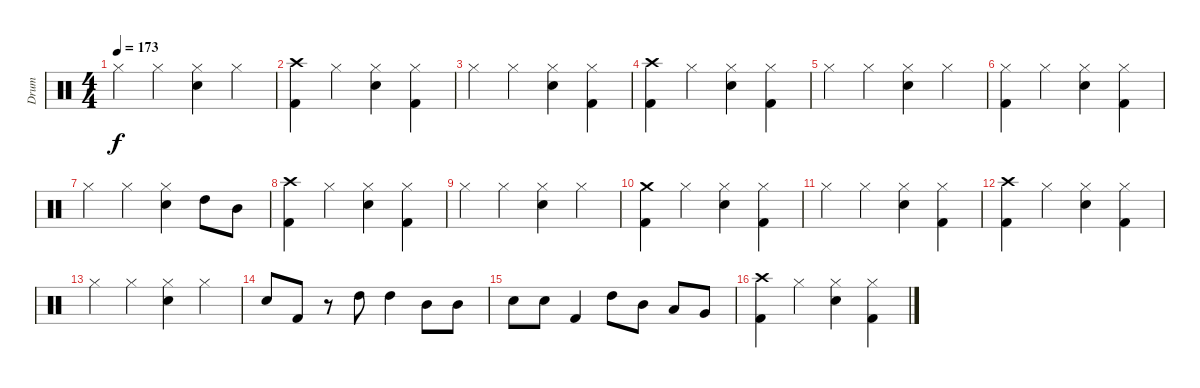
\track ("Drum" "Drum") {instrument percussion}
\staff {score}
\articulation defaults
\ts (4 4)
\tempo 173
\clef neutral
\ks c "Hi-Hat (closed)".4{dy f} "Hi-Hat (closed)".4
("Hi-Hat (closed)" "Electric Snare (hit)").4 "Hi-Hat (closed)".4 |
("Crash high (hit)" "Kick (hit) 2").4 "Hi-Hat (closed)".4 ("Hi-Hat (closed)" "Electric Snare (hit)").4 ("Hi-Hat (closed)" "Kick (hit) 2").4 |
"Hi-Hat (closed)".4 "Hi-Hat (closed)".4 ("Hi-Hat (closed)" "Electric Snare (hit)").4 ("Hi-Hat (closed)" "Kick (hit) 2").4 |
("Crash high (hit)" "Kick (hit) 2").4 "Hi-Hat (closed)".4 ("Hi-Hat (closed)" "Electric Snare (hit)").4 ("Hi-Hat (closed)" "Kick (hit) 2").4 |
"Hi-Hat (closed)".4 "Hi-Hat (closed)".4 ("Hi-Hat (closed)" "Electric Snare (hit)").4 "Hi-Hat (closed)".4 |
("Hi-Hat (closed)" "Kick (hit) 2").4 "Hi-Hat (closed)".4 ("Hi-Hat (closed)" "Electric Snare (hit)").4 ("Hi-Hat (closed)" "Kick (hit) 2").4 |
"Hi-Hat (closed)".4 "Hi-Hat (closed)".4 ("Hi-Hat (closed)" "Electric Snare (hit)").4 "High Tom (hit)".8 "Mid Tom (hit)".8 |
("Crash high (hit)" "Kick (hit) 2").4 "Hi-Hat (closed)".4 ("Hi-Hat (closed)" "Electric Snare (hit)").4 ("Hi-Hat (closed)" "Kick (hit) 2").4 |
"Hi-Hat (closed)".4 "Hi-Hat (closed)".4 ("Hi-Hat (closed)" "Electric Snare (hit)").4 "Hi-Hat (closed)".4 |
("Crash medium (hit)" "Kick (hit) 2").4 "Hi-Hat (closed)".4 ("Hi-Hat (closed)" "Electric Snare (hit)").4 ("Hi-Hat (closed)" "Kick (hit) 2").4 |
"Hi-Hat (closed)".4 "Hi-Hat (closed)".4 ("Hi-Hat (closed)" "Electric Snare (hit)").4 ("Hi-Hat (closed)" "Kick (hit) 2").4 |
("Crash high (hit)" "Kick (hit) 2").4 "Hi-Hat (closed)".4 ("Hi-Hat (closed)" "Electric Snare (hit)").4 ("Hi-Hat (closed)" "Kick (hit) 2").4 |
"Hi-Hat (closed)".4 "Hi-Hat (closed)".4 ("Hi-Hat (closed)" "Electric Snare (hit)").4 "Hi-Hat (closed)".4 |
"Electric Snare (hit)".8 "Kick (hit) 2".8 r.8 "High Tom (hit)".8 "High Tom (hit)".4 "Mid Tom (hit)".8 "Mid Tom (hit)".8 |
"Electric Snare (hit)".8 "Electric Snare (hit)".8 "Kick (hit) 2".4 "High Tom (hit)".8 "Mid Tom (hit)".8 "Low Tom (hit)".8 "Very Low Tom (hit)".8 |
("Crash high (hit)" "Kick (hit) 2").4 "Hi-Hat (closed)".4 ("Hi-Hat (closed)" "Electric Snare (hit)").4 ("Hi-Hat (closed)" "Kick (hit) 2").4
